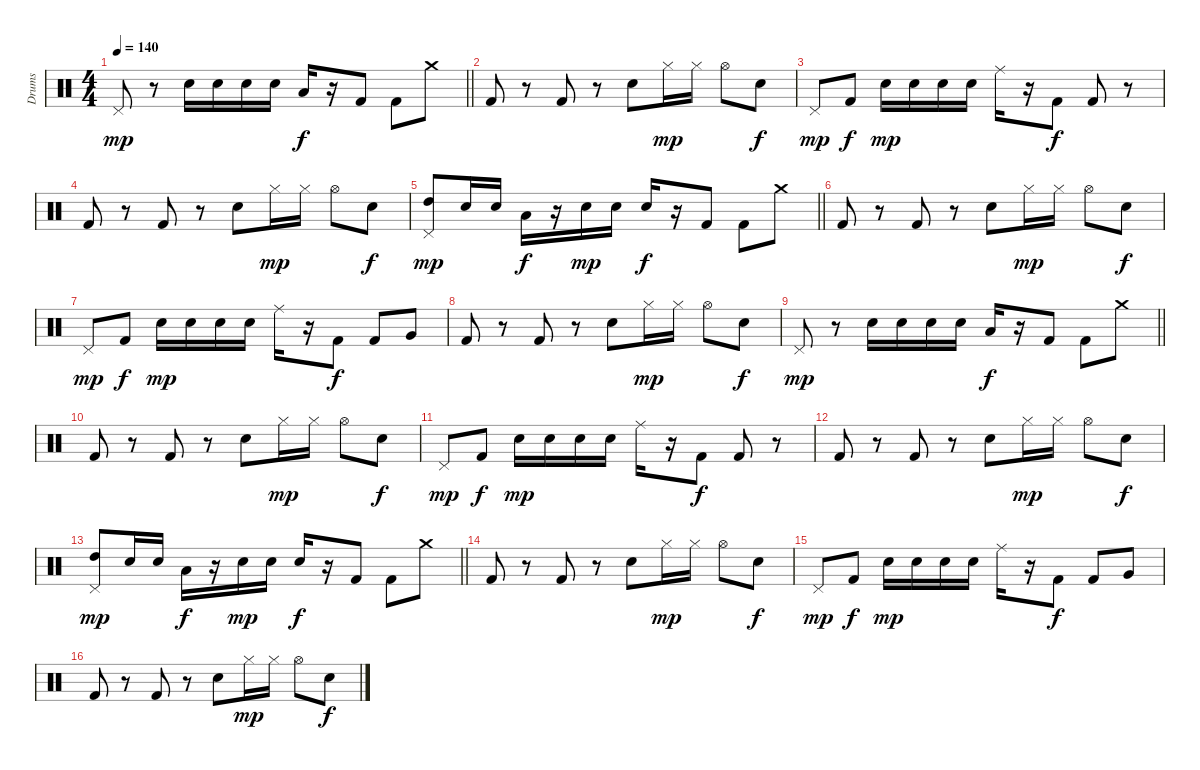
\track ("Drums" "Drums") {instrument percussion}
\staff {score}
\articulation defaults
\ts (4 4)
\tempo 140
\clef neutral
\barLineRight lightlight
\ks c "Pedal Hi-Hat (hit)".8{dy mp}
r.8 "Snare (hit) 2".16 "Snare (hit) 2".16 "Snare (hit) 2".16 "Snare (hit) 2".16 "Low Tom (hit)".16{dy f} r.16 "Kick (hit) 2".8 "Kick (hit) 2".8 "Crash medium (hit)".8 |
"Kick (hit) 2".8 r.8 "Kick (hit) 2".8 r.8 "Snare (hit) 2".8 "Hi-Hat (closed)".16{dy mp} "Hi-Hat (closed)".16 "Hi-Hat (open)".8 "Snare (hit) 2".8{dy f} |
"Pedal Hi-Hat (hit)".8{dy mp} "Kick (hit) 2".8{dy f} "Snare (hit) 2".16{dy mp} "Snare (hit) 2".16 "Snare (hit) 2".16 "Snare (hit) 2".16 "Ride (middle)".16 r.16 "Kick (hit) 2".8{dy f} "Kick (hit) 2".8 r.8 |
"Kick (hit) 2".8 r.8 "Kick (hit) 2".8 r.8 "Snare (hit) 2".8 "Hi-Hat (closed)".16{dy mp} "Hi-Hat (closed)".16 "Hi-Hat (open)".8 "Snare (hit) 2".8{dy f} |
\barLineRight lightlight
("High Tom (hit)" "Pedal Hi-Hat (hit)").8{dy mp} "Snare (hit) 2".16 "Snare (hit) 2".16 "Low Tom (hit)".16{dy f} r.16 "Snare (hit) 2".16{dy mp} "Snare (hit) 2".16 "Snare (hit) 2".16{dy f} r.16 "Kick (hit) 2".8 "Kick (hit) 2".8 "Crash medium (hit)".8 |
"Kick (hit) 2".8 r.8 "Kick (hit) 2".8 r.8 "Snare (hit) 2".8 "Hi-Hat (closed)".16{dy mp} "Hi-Hat (closed)".16 "Hi-Hat (open)".8 "Snare (hit) 2".8{dy f} |
"Pedal Hi-Hat (hit)".8{dy mp} "Kick (hit) 2".8{dy f} "Snare (hit) 2".16{dy mp} "Snare (hit) 2".16 "Snare (hit) 2".16 "Snare (hit) 2".16 "Ride (middle)".16 r.16 "Kick (hit) 2".8{dy f} "Kick (hit) 2".8 "Very Low Tom (hit)".8 |
"Kick (hit) 2".8 r.8 "Kick (hit) 2".8 r.8 "Snare (hit) 2".8 "Hi-Hat (closed)".16{dy mp} "Hi-Hat (closed)".16 "Hi-Hat (open)".8 "Snare (hit) 2".8{dy f} |
\barLineRight lightlight "Pedal Hi-Hat (hit)".8{dy mp}
r.8 "Snare (hit) 2".16 "Snare (hit) 2".16 "Snare (hit) 2".16 "Snare (hit) 2".16 "Low Tom (hit)".16{dy f} r.16 "Kick (hit) 2".8 "Kick (hit) 2".8 "Crash medium (hit)".8 |
"Kick (hit) 2".8 r.8 "Kick (hit) 2".8 r.8 "Snare (hit) 2".8 "Hi-Hat (closed)".16{dy mp} "Hi-Hat (closed)".16 "Hi-Hat (open)".8 "Snare (hit) 2".8{dy f} |
"Pedal Hi-Hat (hit)".8{dy mp} "Kick (hit) 2".8{dy f} "Snare (hit) 2".16{dy mp} "Snare (hit) 2".16 "Snare (hit) 2".16 "Snare (hit) 2".16 "Ride (middle)".16 r.16 "Kick (hit) 2".8{dy f} "Kick (hit) 2".8 r.8 |
"Kick (hit) 2".8 r.8 "Kick (hit) 2".8 r.8 "Snare (hit) 2".8 "Hi-Hat (closed)".16{dy mp} "Hi-Hat (closed)".16 "Hi-Hat (open)".8 "Snare (hit) 2".8{dy f} |
\barLineRight lightlight
("High Tom (hit)" "Pedal Hi-Hat (hit)").8{dy mp} "Snare (hit) 2".16 "Snare (hit) 2".16 "Low Tom (hit)".16{dy f} r.16 "Snare (hit) 2".16{dy mp} "Snare (hit) 2".16 "Snare (hit) 2".16{dy f} r.16 "Kick (hit) 2".8 "Kick (hit) 2".8 "Crash medium (hit)".8 |
"Kick (hit) 2".8 r.8 "Kick (hit) 2".8 r.8 "Snare (hit) 2".8 "Hi-Hat (closed)".16{dy mp} "Hi-Hat (closed)".16 "Hi-Hat (open)".8 "Snare (hit) 2".8{dy f} |
"Pedal Hi-Hat (hit)".8{dy mp} "Kick (hit) 2".8{dy f} "Snare (hit) 2".16{dy mp} "Snare (hit) 2".16 "Snare (hit) 2".16 "Snare (hit) 2".16 "Ride (middle)".16 r.16 "Kick (hit) 2".8{dy f} "Kick (hit) 2".8 "Very Low Tom (hit)".8 |
"Kick (hit) 2".8 r.8 "Kick (hit) 2".8 r.8 "Snare (hit) 2".8 "Hi-Hat (closed)".16{dy mp} "Hi-Hat (closed)".16 "Hi-Hat (open)".8 "Snare (hit) 2".8{dy f}
